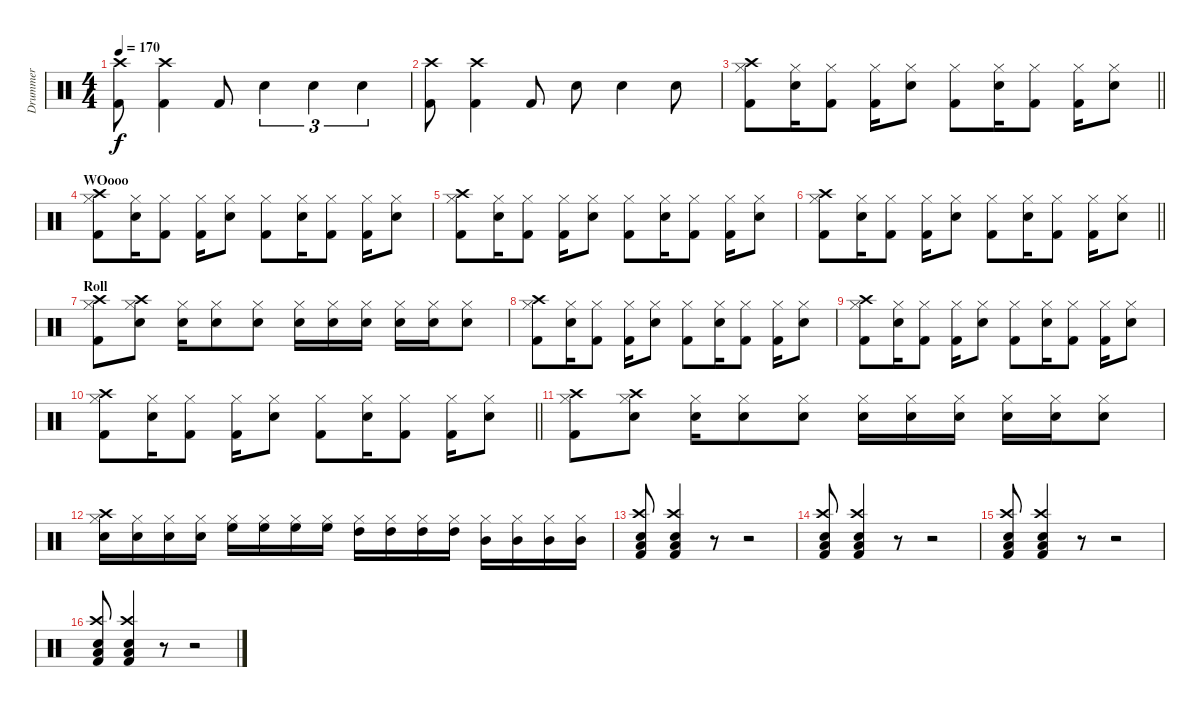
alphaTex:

\track ("Drummer" "Drummer") {instrument percussion}
\staff {score}
\articulation defaults
\ts (4 4)
\tempo 170
\clef neutral
\ks c
("Kick (hit) 2" "Crash high (hit)").8{dy f} ("Kick (hit) 2" "Crash high (hit)").4 "Kick (hit) 2".8 "Electric Snare (hit)".4{tu (3 2)} "Electric Snare (hit)".4{tu (3 2)} "Electric Snare (hit)".4{tu (3 2)} |
("Kick (hit) 2" "Crash high (hit)").8 ("Kick (hit) 2" "Crash high (hit)").4 "Kick (hit) 2".8 "Electric Snare (hit)".8 "Electric Snare (hit)".4 "Electric Snare (hit)".8 |
\barLineRight lightlight
("Kick (hit) 2" "Hi-Hat (closed)" "Crash high (hit)").8 ("Electric Snare (hit)" "Hi-Hat (closed)").16 ("Kick (hit) 2" "Hi-Hat (closed)").8 ("Kick (hit) 2" "Hi-Hat (closed)").16 ("Electric Snare (hit)" "Hi-Hat (closed)").8 ("Kick (hit) 2" "Hi-Hat (closed)").8 ("Electric Snare (hit)" "Hi-Hat (closed)").16 ("Kick (hit) 2" "Hi-Hat (closed)").8 ("Kick (hit) 2" "Hi-Hat (closed)").16 ("Electric Snare (hit)" "Hi-Hat (closed)").8 |
\section ("" "WOooo")
("Kick (hit) 2" "Hi-Hat (closed)" "Crash high (hit)").8 ("Electric Snare (hit)" "Hi-Hat (closed)").16 ("Kick (hit) 2" "Hi-Hat (closed)").8 ("Kick (hit) 2" "Hi-Hat (closed)").16 ("Electric Snare (hit)" "Hi-Hat (closed)").8 ("Kick (hit) 2" "Hi-Hat (closed)").8 ("Electric Snare (hit)" "Hi-Hat (closed)").16 ("Kick (hit) 2" "Hi-Hat (closed)").8 ("Kick (hit) 2" "Hi-Hat (closed)").16 ("Electric Snare (hit)" "Hi-Hat (closed)").8 |
("Kick (hit) 2" "Hi-Hat (closed)" "Crash high (hit)").8 ("Electric Snare (hit)" "Hi-Hat (closed)").16 ("Kick (hit) 2" "Hi-Hat (closed)").8 ("Kick (hit) 2" "Hi-Hat (closed)").16 ("Electric Snare (hit)" "Hi-Hat (closed)").8 ("Kick (hit) 2" "Hi-Hat (closed)").8 ("Electric Snare (hit)" "Hi-Hat (closed)").16 ("Kick (hit) 2" "Hi-Hat (closed)").8 ("Kick (hit) 2" "Hi-Hat (closed)").16 ("Electric Snare (hit)" "Hi-Hat (closed)").8 |
\barLineRight lightlight
("Kick (hit) 2" "Hi-Hat (closed)" "Crash high (hit)").8 ("Electric Snare (hit)" "Hi-Hat (closed)").16 ("Kick (hit) 2" "Hi-Hat (closed)").8 ("Kick (hit) 2" "Hi-Hat (closed)").16 ("Electric Snare (hit)" "Hi-Hat (closed)").8 ("Kick (hit) 2" "Hi-Hat (closed)").8 ("Electric Snare (hit)" "Hi-Hat (closed)").16 ("Kick (hit) 2" "Hi-Hat (closed)").8 ("Kick (hit) 2" "Hi-Hat (closed)").16 ("Electric Snare (hit)" "Hi-Hat (closed)").8 |
\section ("" "Roll")
("Kick (hit) 2" "Hi-Hat (closed)" "Crash high (hit)").8 ("Electric Snare (hit)" "Hi-Hat (closed)" "Crash high (hit)").8 ("Electric Snare (hit)" "Hi-Hat (closed)").16 ("Electric Snare (hit)" "Hi-Hat (closed)").8 ("Electric Snare (hit)" "Hi-Hat (closed)").8 ("Electric Snare (hit)" "Hi-Hat (closed)").16 ("Electric Snare (hit)" "Hi-Hat (closed)").16 ("Electric Snare (hit)" "Hi-Hat (closed)").16 ("Electric Snare (hit)" "Hi-Hat (closed)").16 ("Electric Snare (hit)" "Hi-Hat (closed)").16 ("Electric Snare (hit)" "Hi-Hat (closed)").8 |
("Kick (hit) 2" "Hi-Hat (closed)" "Crash high (hit)").8 ("Electric Snare (hit)" "Hi-Hat (closed)").16 ("Kick (hit) 2" "Hi-Hat (closed)").8 ("Kick (hit) 2" "Hi-Hat (closed)").16 ("Electric Snare (hit)" "Hi-Hat (closed)").8 ("Kick (hit) 2" "Hi-Hat (closed)").8 ("Electric Snare (hit)" "Hi-Hat (closed)").16 ("Kick (hit) 2" "Hi-Hat (closed)").8 ("Kick (hit) 2" "Hi-Hat (closed)").16 ("Electric Snare (hit)" "Hi-Hat (closed)").8 |
("Kick (hit) 2" "Hi-Hat (closed)" "Crash high (hit)").8 ("Electric Snare (hit)" "Hi-Hat (closed)").16 ("Kick (hit) 2" "Hi-Hat (closed)").8 ("Kick (hit) 2" "Hi-Hat (closed)").16 ("Electric Snare (hit)" "Hi-Hat (closed)").8 ("Kick (hit) 2" "Hi-Hat (closed)").8 ("Electric Snare (hit)" "Hi-Hat (closed)").16 ("Kick (hit) 2" "Hi-Hat (closed)").8 ("Kick (hit) 2" "Hi-Hat (closed)").16 ("Electric Snare (hit)" "Hi-Hat (closed)").8 |
\barLineRight lightlight
("Kick (hit) 2" "Hi-Hat (closed)" "Crash high (hit)").8 ("Electric Snare (hit)" "Hi-Hat (closed)").16 ("Kick (hit) 2" "Hi-Hat (closed)").8 ("Kick (hit) 2" "Hi-Hat (closed)").16 ("Electric Snare (hit)" "Hi-Hat (closed)").8 ("Kick (hit) 2" "Hi-Hat (closed)").8 ("Electric Snare (hit)" "Hi-Hat (closed)").16 ("Kick (hit) 2" "Hi-Hat (closed)").8 ("Kick (hit) 2" "Hi-Hat (closed)").16 ("Electric Snare (hit)" "Hi-Hat (closed)").8 |
("Kick (hit) 2" "Hi-Hat (closed)" "Crash high (hit)").8 ("Electric Snare (hit)" "Hi-Hat (closed)" "Crash high (hit)").8 ("Electric Snare (hit)" "Hi-Hat (closed)").16 ("Electric Snare (hit)" "Hi-Hat (closed)").8 ("Electric Snare (hit)" "Hi-Hat (closed)").8 ("Electric Snare (hit)" "Hi-Hat (closed)").16 ("Electric Snare (hit)" "Hi-Hat (closed)").16 ("Electric Snare (hit)" "Hi-Hat (closed)").16 ("Electric Snare (hit)" "Hi-Hat (closed)").16 ("Electric Snare (hit)" "Hi-Hat (closed)").16 ("Electric Snare (hit)" "Hi-Hat (closed)").8 |
("Electric Snare (hit)" "Hi-Hat (closed)" "Crash high (hit)").16 ("Electric Snare (hit)" "Hi-Hat (closed)").16 ("Snare (hit) 2" "Hi-Hat (closed)").16 ("Snare (hit) 2" "Hi-Hat (closed)").16 ("High Floor Tom (hit)" "Hi-Hat (closed)").16 ("High Floor Tom (hit)" "Hi-Hat (closed)").16 ("High Floor Tom (hit)" "Hi-Hat (closed)").16 ("High Floor Tom (hit)" "Hi-Hat (closed)").16 ("High Tom (hit)" "Hi-Hat (closed)").16 ("High Tom (hit)" "Hi-Hat (closed)").16 ("High Tom (hit)" "Hi-Hat (closed)").16 ("High Tom (hit)" "Hi-Hat (closed)").16 ("Mid Tom (hit)" "Hi-Hat (closed)").16 ("Mid Tom (hit)" "Hi-Hat (closed)").16 ("Mid Tom (hit)" "Hi-Hat (closed)").16 ("Mid Tom (hit)" "Hi-Hat (closed)").16 |
("Kick (hit) 2" "Low Tom (hit)" "Electric Snare (hit)" "Crash high (hit)").8 ("Kick (hit) 2" "Low Tom (hit)" "Electric Snare (hit)" "Crash high (hit)").4 r.8 r.2 |
("Kick (hit) 2" "Low Tom (hit)" "Electric Snare (hit)" "Crash high (hit)").8 ("Kick (hit) 2" "Low Tom (hit)" "Electric Snare (hit)" "Crash high (hit)").4 r.8 r.2 |
("Kick (hit) 2" "Low Tom (hit)" "Electric Snare (hit)" "Crash high (hit)").8 ("Kick (hit) 2" "Low Tom (hit)" "Electric Snare (hit)" "Crash high (hit)").4 r.8 r.2 |
("Kick (hit) 2" "Low Tom (hit)" "Electric Snare (hit)" "Crash high (hit)").8 ("Kick (hit) 2" "Low Tom (hit)" "Electric Snare (hit)" "Crash high (hit)").4 r.8 r.2
